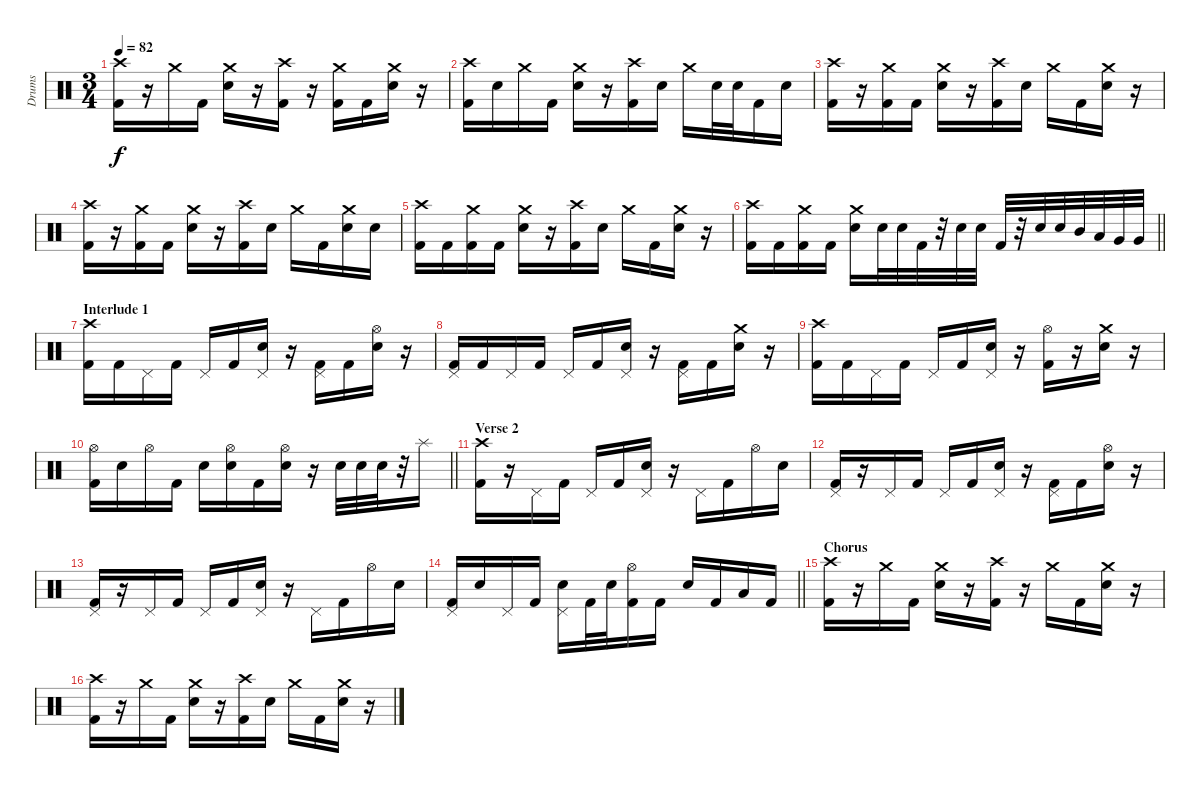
\track ("Drums" "Drums") {instrument percussion}
\staff {score}
\articulation defaults
\ts (3 4)
\tempo 82
\clef neutral
\ks c
("Crash high (hit)" "Kick (hit) 2").16{dy f} r.16 "Crash medium (hit)".16 "Kick (hit) 2".16 ("Crash medium (hit)" "Electric Snare (hit)").16 r.16 ("Crash high (hit)" "Kick (hit) 2").16 r.16 ("Crash medium (hit)" "Kick (hit) 2").16 "Kick (hit) 2".16 ("Crash medium (hit)" "Electric Snare (hit)").16 r.16 |
("Crash high (hit)" "Kick (hit) 2").16 "Electric Snare (hit)".16 "Crash medium (hit)".16 "Kick (hit) 2".16 ("Crash medium (hit)" "Electric Snare (hit)").16 r.16 ("Crash high (hit)" "Kick (hit) 2").16 "Electric Snare (hit)".16 "Crash medium (hit)".16 "Electric Snare (hit)".32 "Electric Snare (hit)".32 "Kick (hit) 2".16 "Electric Snare (hit)".16 |
("Crash high (hit)" "Kick (hit) 2").16 r.16 ("Crash medium (hit)" "Kick (hit) 2").16 "Kick (hit) 2".16 ("Crash medium (hit)" "Electric Snare (hit)").16 r.16 ("Crash high (hit)" "Kick (hit) 2").16 "Electric Snare (hit)".16 "Crash medium (hit)".16 "Kick (hit) 2".16 ("Crash medium (hit)" "Electric Snare (hit)").16 r.16 |
("Crash high (hit)" "Kick (hit) 2").16 r.16 ("Crash medium (hit)" "Kick (hit) 2").16 "Kick (hit) 2".16 ("Crash medium (hit)" "Electric Snare (hit)").16 r.16 ("Crash high (hit)" "Kick (hit) 2").16 "Electric Snare (hit)".16 "Crash medium (hit)".16 "Kick (hit) 2".16 ("Crash medium (hit)" "Electric Snare (hit)").16 "Electric Snare (hit)".16 |
("Crash high (hit)" "Kick (hit) 2").16 "Kick (hit) 2".16 ("Crash medium (hit)" "Kick (hit) 2").16 "Kick (hit) 2".16 ("Crash medium (hit)" "Electric Snare (hit)").16 r.16 ("Crash high (hit)" "Kick (hit) 2").16 "Electric Snare (hit)".16 "Crash medium (hit)".16 "Kick (hit) 2".16 ("Crash medium (hit)" "Electric Snare (hit)").16 r.16 |
\barLineRight lightlight
("Crash high (hit)" "Kick (hit) 2").16 "Kick (hit) 2".16 ("Crash medium (hit)" "Kick (hit) 2").16 "Kick (hit) 2".16 ("Crash medium (hit)" "Electric Snare (hit)").16 "Electric Snare (hit)".32 "Electric Snare (hit)".32 "Kick (hit) 2".32 r.32 "Electric Snare (hit)".32 "Electric Snare (hit)".32 "Kick (hit) 2".32 r.32 "Electric Snare (hit)".32 "Electric Snare (hit)".32 "Mid Tom (hit)".32 "Low Tom (hit)".32 "Very Low Tom (hit)".32 "Very Low Tom (hit)".32 |
\section ("" "Interlude 1")
("Crash high (hit)" "Kick (hit) 2").16 "Kick (hit) 2".16 "Pedal Hi-Hat (hit)".16 "Kick (hit) 2".16 "Pedal Hi-Hat (hit)".16 "Kick (hit) 2".16 ("Pedal Hi-Hat (hit)" "Electric Snare (hit)").16 r.16 ("Pedal Hi-Hat (hit)" "Kick (hit) 2").16 "Kick (hit) 2".16 ("Hi-Hat (open)" "Electric Snare (hit)").16 r.16 |
("Pedal Hi-Hat (hit)" "Kick (hit) 2").16 "Kick (hit) 2".16 "Pedal Hi-Hat (hit)".16 "Kick (hit) 2".16 "Pedal Hi-Hat (hit)".16 "Kick (hit) 2".16 ("Pedal Hi-Hat (hit)" "Electric Snare (hit)").16 r.16 ("Pedal Hi-Hat (hit)" "Kick (hit) 2").16 "Kick (hit) 2".16 ("Crash medium (hit)" "Electric Snare (hit)").16 r.16 |
("Crash high (hit)" "Kick (hit) 2").16 "Kick (hit) 2".16 "Pedal Hi-Hat (hit)".16 "Kick (hit) 2".16 "Pedal Hi-Hat (hit)".16 "Kick (hit) 2".16 ("Pedal Hi-Hat (hit)" "Electric Snare (hit)").16 r.16 ("Hi-Hat (open)" "Kick (hit) 2").16 r.16 ("Crash medium (hit)" "Electric Snare (hit)").16 r.16 |
\barLineRight lightlight
("Hi-Hat (open)" "Kick (hit) 2").16 "Electric Snare (hit)".16 "Hi-Hat (open)".16 "Kick (hit) 2".16 "Electric Snare (hit)".16 ("Hi-Hat (open)" "Electric Snare (hit)").16 "Kick (hit) 2".16 ("Hi-Hat (open)" "Electric Snare (hit)").16 r.16 "Electric Snare (hit)".32 "Electric Snare (hit)".32 "Electric Snare (hit)".32 r.32 "Splash (hit)".16 |
\section ("" "Verse 2")
("Crash high (hit)" "Kick (hit) 2").16 r.16 "Pedal Hi-Hat (hit)".16 "Kick (hit) 2".16 "Pedal Hi-Hat (hit)".16 "Kick (hit) 2".16 ("Pedal Hi-Hat (hit)" "Electric Snare (hit)").16 r.16 "Pedal Hi-Hat (hit)".16 "Kick (hit) 2".16 "Hi-Hat (open)".16 "Electric Snare (hit)".16 |
("Pedal Hi-Hat (hit)" "Kick (hit) 2").16 r.16 "Pedal Hi-Hat (hit)".16 "Kick (hit) 2".16 "Pedal Hi-Hat (hit)".16 "Kick (hit) 2".16 ("Pedal Hi-Hat (hit)" "Electric Snare (hit)").16 r.16 ("Pedal Hi-Hat (hit)" "Kick (hit) 2").16 "Kick (hit) 2".16 ("Hi-Hat (open)" "Electric Snare (hit)").16 r.16 |
("Pedal Hi-Hat (hit)" "Kick (hit) 2").16 r.16 "Pedal Hi-Hat (hit)".16 "Kick (hit) 2".16 "Pedal Hi-Hat (hit)".16 "Kick (hit) 2".16 ("Pedal Hi-Hat (hit)" "Electric Snare (hit)").16 r.16 "Pedal Hi-Hat (hit)".16 "Kick (hit) 2".16 "Hi-Hat (open)".16 "Electric Snare (hit)".16 |
\barLineRight lightlight
("Pedal Hi-Hat (hit)" "Kick (hit) 2").16 "Electric Snare (hit)".16 "Pedal Hi-Hat (hit)".16 "Kick (hit) 2".16 ("Pedal Hi-Hat (hit)" "Electric Snare (hit)").16 "Kick (hit) 2".32 "Electric Snare (hit)".32 ("Hi-Hat (open)" "Kick (hit) 2").16 "Kick (hit) 2".16 "Electric Snare (hit)".16 "Kick (hit) 2".16 "Low Floor Tom (hit)".16 "Kick (hit) 2".16 |
\section ("" "Chorus")
("Crash high (hit)" "Kick (hit) 2").16 r.16 "Crash medium (hit)".16 "Kick (hit) 2".16 ("Crash medium (hit)" "Electric Snare (hit)").16 r.16 ("Crash high (hit)" "Kick (hit) 2").16 r.16 "Crash medium (hit)".16 "Kick (hit) 2".16 ("Crash medium (hit)" "Electric Snare (hit)").16 r.16 |
("Crash high (hit)" "Kick (hit) 2").16 r.16 "Crash medium (hit)".16 "Kick (hit) 2".16 ("Crash medium (hit)" "Electric Snare (hit)").16 r.16 ("Crash high (hit)" "Kick (hit) 2").16 "Electric Snare (hit)".16 "Crash medium (hit)".16 "Kick (hit) 2".16 ("Crash medium (hit)" "Electric Snare (hit)").16 r.16
